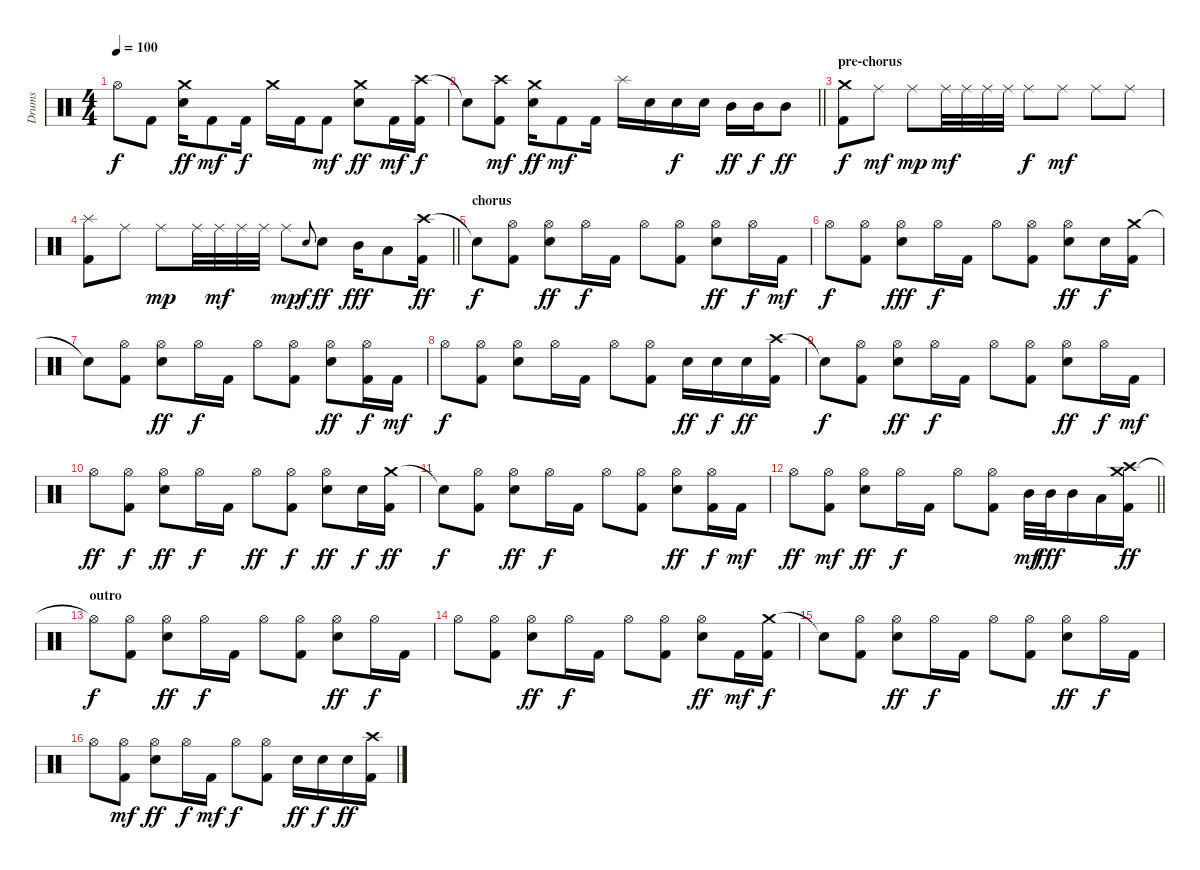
\track ("Drums" "Drums") {instrument percussion}
\staff {score}
\articulation defaults
\ts (4 4)
\tempo 100
\clef neutral
\ks c "Hi-Hat (open)"{t}.8{dy f} "Kick (hit) 2".8
("Crash medium (hit)" "Snare (hit) 2").16{dy ff} "Kick (hit) 2".8{dy mf} "Kick (hit) 2".16{dy f} "Crash medium (hit)".16 "Kick (hit) 2".16 "Kick (hit) 2".8{dy mf} ("Crash medium (hit)" "Snare (hit) 2").8{dy ff} "Kick (hit) 2".16{dy mf} ("Crash high (hit)" "Kick (hit) 2").16{dy f} |
\barLineRight lightlight "Snare (hit)"{t}.8
("Crash high (hit)" "Kick (hit) 2").8{dy mf} ("Crash medium (hit)" "Snare (hit) 2").16{dy ff} "Kick (hit) 2".8{dy mf} "Kick (hit) 2".16 "Splash (hit)".16 "Snare (hit) 2".16 "Snare (hit) 2".16{dy f} "Snare (hit) 2".16 "Mid Tom (hit)".16{dy ff} "Mid Tom (hit)".16{dy f} "Mid Tom (hit)".8{dy ff} |
\section ("" "pre-chorus")
("Crash medium (hit)" "Kick (hit) 2").8{dy f} "Ride (middle)".8{dy mf} "Ride (middle)".8{dy mp} "Ride (middle)".32{dy mf} "Ride (middle)".32 "Ride (middle)".32 "Ride (middle)".32 "Ride (middle)".8{dy f} "Ride (middle)".8{dy mf} "Ride (middle)".8 "Ride (middle)".8 |
\barLineRight lightlight
("Splash (hit)" "Kick (hit) 2").8 "Ride (middle)".8 "Ride (middle)".8{dy mp} "Ride (middle)".32 "Ride (middle)".32{dy mf} "Ride (middle)".32 "Ride (middle)".32 "Ride (middle)".8{dy mp} "Snare (hit) 2".8{gr onbeat dy f} "Snare (hit) 2".8{dy ff} "Mid Tom (hit)".16{dy fff} "Low Tom (hit)".8 ("Crash high (hit)" "Kick (hit) 2").16{dy ff} |
\section ("" "chorus")
"Snare (hit)"{t}.8{dy f} ("Hi-Hat (open)" "Kick (hit) 2").8 ("Hi-Hat (open)" "Snare (hit) 2").8{dy ff} "Hi-Hat (open)".16{dy f} "Kick (hit) 2".16 "Hi-Hat (open)".8 ("Hi-Hat (open)" "Kick (hit) 2").8 ("Hi-Hat (open)" "Snare (hit) 2").8{dy ff} "Hi-Hat (open)".16{dy f} "Kick (hit) 2".16{dy mf} |
"Hi-Hat (open)".8{dy f} ("Hi-Hat (open)" "Kick (hit) 2").8 ("Hi-Hat (open)" "Snare (hit) 2").8{dy fff} "Hi-Hat (open)".16{dy f} "Kick (hit) 2".16 "Hi-Hat (open)".8 ("Hi-Hat (open)" "Kick (hit) 2").8 ("Hi-Hat (open)" "Snare (hit) 2").8{dy ff} "Snare (hit) 2".16{dy f} ("Crash medium (hit)" "Kick (hit) 2").16 |
"Snare (hit)"{t}.8 ("Hi-Hat (open)" "Kick (hit) 2").8 ("Hi-Hat (open)" "Snare (hit) 2").8{dy ff} "Hi-Hat (open)".16{dy f} "Kick (hit) 2".16 "Hi-Hat (open)".8 ("Hi-Hat (open)" "Kick (hit) 2").8 ("Hi-Hat (open)" "Snare (hit) 2").8{dy ff} ("Hi-Hat (open)" "Kick (hit) 2").16{dy f} "Kick (hit) 2".16{dy mf} |
"Hi-Hat (open)".8{dy f} ("Hi-Hat (open)" "Kick (hit) 2").8 ("Hi-Hat (open)" "Snare (hit) 2").8 "Hi-Hat (open)".16 "Kick (hit) 2".16 "Hi-Hat (open)".8 ("Hi-Hat (open)" "Kick (hit) 2").8 "Snare (hit) 2".16{dy ff} "Snare (hit) 2".16{dy f} "Snare (hit) 2".16{dy ff} ("Crash high (hit)" "Kick (hit) 2").16 |
"Snare (hit)"{t}.8{dy f} ("Hi-Hat (open)" "Kick (hit) 2").8 ("Hi-Hat (open)" "Snare (hit) 2").8{dy ff} "Hi-Hat (open)".16{dy f} "Kick (hit) 2".16 "Hi-Hat (open)".8 ("Hi-Hat (open)" "Kick (hit) 2").8 ("Hi-Hat (open)" "Snare (hit) 2").8{dy ff} "Hi-Hat (open)".16{dy f} "Kick (hit) 2".16{dy mf} |
"Hi-Hat (open)".8{dy ff} ("Hi-Hat (open)" "Kick (hit) 2").8{dy f} ("Hi-Hat (open)" "Snare (hit) 2").8{dy ff} "Hi-Hat (open)".16{dy f} "Kick (hit) 2".16 "Hi-Hat (open)".8{dy ff} ("Hi-Hat (open)" "Kick (hit) 2").8{dy f} ("Hi-Hat (open)" "Snare (hit) 2").8{dy ff} "Snare (hit) 2".16{dy f} ("Crash medium (hit)" "Kick (hit) 2").16{dy ff} |
"Snare (hit)"{t}.8{dy f} ("Hi-Hat (open)" "Kick (hit) 2").8 ("Hi-Hat (open)" "Snare (hit) 2").8{dy ff} "Hi-Hat (open)".16{dy f} "Kick (hit) 2".16 "Hi-Hat (open)".8 ("Hi-Hat (open)" "Kick (hit) 2").8 ("Hi-Hat (open)" "Snare (hit) 2").8{dy ff} ("Hi-Hat (open)" "Kick (hit) 2").16{dy f} "Kick (hit) 2".16{dy mf} |
\barLineRight lightlight "Hi-Hat (open)".8{dy ff}
("Hi-Hat (open)" "Kick (hit) 2").8{dy mf} ("Hi-Hat (open)" "Snare (hit) 2").8{dy ff} "Hi-Hat (open)".16{dy f} "Kick (hit) 2".16 "Hi-Hat (open)".8 ("Hi-Hat (open)" "Kick (hit) 2").8 "Mid Tom (hit)".32{dy mf} "Mid Tom (hit)".32{dy fff} "Mid Tom (hit)".16 "Low Tom (hit)".16 ("Crash medium (hit)" "Crash high (hit)" "Kick (hit) 2").16{dy ff} |
\section ("" "outro")
"Hi-Hat (open)"{t}.8{dy f} ("Hi-Hat (open)" "Kick (hit) 2").8 ("Hi-Hat (open)" "Snare (hit) 2").8{dy ff} "Hi-Hat (open)".16{dy f} "Kick (hit) 2".16 "Hi-Hat (open)".8 ("Hi-Hat (open)" "Kick (hit) 2").8 ("Hi-Hat (open)" "Snare (hit) 2").8{dy ff} "Hi-Hat (open)".16{dy f} "Kick (hit) 2".16 |
"Hi-Hat (open)".8 ("Hi-Hat (open)" "Kick (hit) 2").8 ("Hi-Hat (open)" "Snare (hit) 2").8{dy ff} "Hi-Hat (open)".16{dy f} "Kick (hit) 2".16 "Hi-Hat (open)".8 ("Hi-Hat (open)" "Kick (hit) 2").8 ("Hi-Hat (open)" "Snare (hit) 2").8{dy ff} "Kick (hit) 2".16{dy mf} ("Crash medium (hit)" "Kick (hit) 2").16{dy f} |
"Snare (hit)"{t}.8 ("Hi-Hat (open)" "Kick (hit) 2").8 ("Hi-Hat (open)" "Snare (hit) 2").8{dy ff} "Hi-Hat (open)".16{dy f} "Kick (hit) 2".16 "Hi-Hat (open)".8 ("Hi-Hat (open)" "Kick (hit) 2").8 ("Hi-Hat (open)" "Snare (hit) 2").8{dy ff} "Hi-Hat (open)".16{dy f} "Kick (hit) 2".16 |
"Hi-Hat (open)".8 ("Hi-Hat (open)" "Kick (hit) 2").8{dy mf} ("Hi-Hat (open)" "Snare (hit) 2").8{dy ff} "Hi-Hat (open)".16{dy f} "Kick (hit) 2".16{dy mf} "Hi-Hat (open)".8{dy f} ("Hi-Hat (open)" "Kick (hit) 2").8 "Snare (hit) 2".16{dy ff} "Snare (hit) 2".16{dy f} "Snare (hit) 2".16{dy ff} ("Crash high (hit)" "Kick (hit) 2").16
